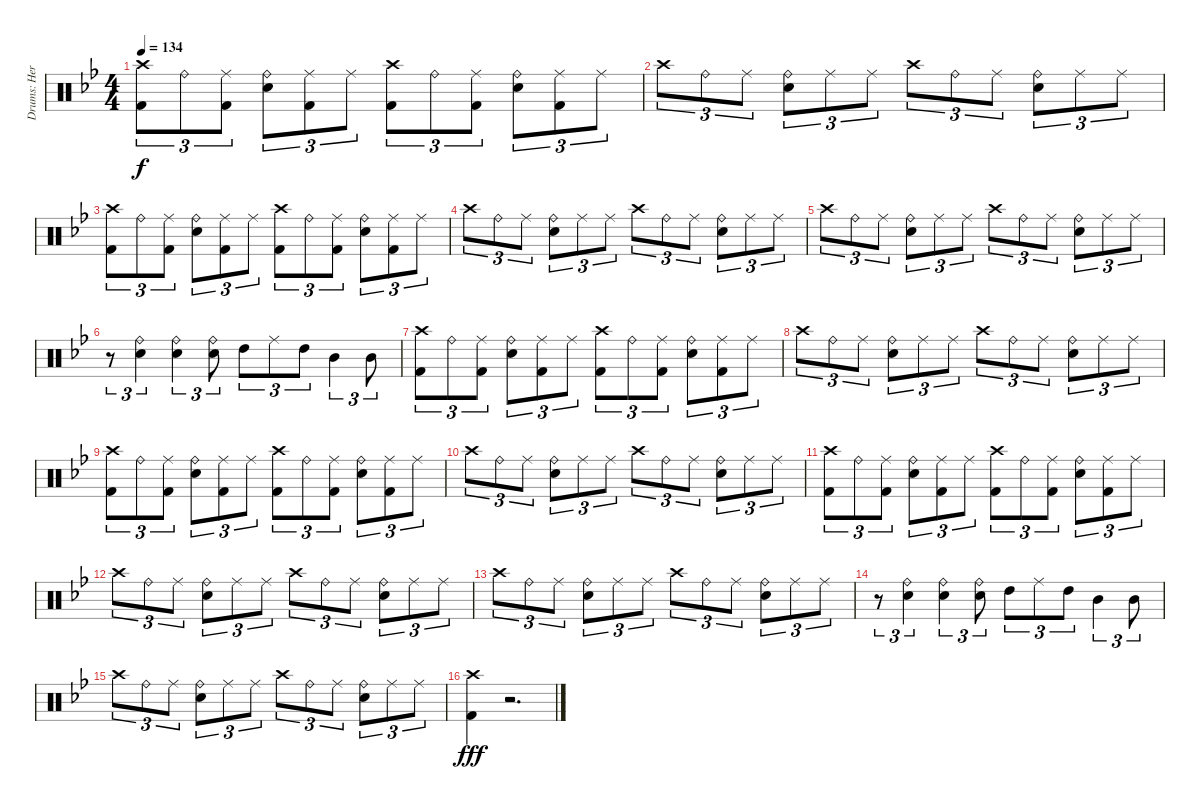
\track ("Drums: Herman" "Drums: Her") {instrument percussion}
\staff {score}
\articulation defaults
\ts (4 4)
\tempo 134
\clef neutral
\ks bb
("Crash high (hit)" "Kick (hit) 2").8{tu (3 2) dy f} "Ride (bell)".8{tu (3 2)} ("Ride (middle)" "Kick (hit) 2").8{tu (3 2)} ("Ride (bell)" "Snare (hit) 2").8{tu (3 2)} ("Ride (middle)" "Kick (hit) 2").8{tu (3 2)} "Ride (middle)".8{tu (3 2)} ("Crash high (hit)" "Kick (hit) 2").8{tu (3 2)} "Ride (bell)".8{tu (3 2)} ("Ride (middle)" "Kick (hit) 2").8{tu (3 2)} ("Ride (bell)" "Snare (hit) 2").8{tu (3 2)} ("Ride (middle)" "Kick (hit) 2").8{tu (3 2)} "Ride (middle)".8{tu (3 2)} |
"Crash high (hit)".8{tu (3 2)} "Ride (bell)".8{tu (3 2)} "Ride (middle)".8{tu (3 2)} ("Ride (bell)" "Snare (hit) 2").8{tu (3 2)} "Ride (middle)".8{tu (3 2)} "Ride (middle)".8{tu (3 2)} "Crash high (hit)".8{tu (3 2)} "Ride (bell)".8{tu (3 2)} "Ride (middle)".8{tu (3 2)} ("Ride (bell)" "Snare (hit) 2").8{tu (3 2)} "Ride (middle)".8{tu (3 2)} "Ride (middle)".8{tu (3 2)} |
("Crash high (hit)" "Kick (hit) 2").8{tu (3 2)} "Ride (bell)".8{tu (3 2)} ("Ride (middle)" "Kick (hit) 2").8{tu (3 2)} ("Ride (bell)" "Snare (hit) 2").8{tu (3 2)} ("Ride (middle)" "Kick (hit) 2").8{tu (3 2)} "Ride (middle)".8{tu (3 2)} ("Crash high (hit)" "Kick (hit) 2").8{tu (3 2)} "Ride (bell)".8{tu (3 2)} ("Ride (middle)" "Kick (hit) 2").8{tu (3 2)} ("Ride (bell)" "Snare (hit) 2").8{tu (3 2)} ("Ride (middle)" "Kick (hit) 2").8{tu (3 2)} "Ride (middle)".8{tu (3 2)} |
"Crash high (hit)".8{tu (3 2)} "Ride (bell)".8{tu (3 2)} "Ride (middle)".8{tu (3 2)} ("Ride (bell)" "Snare (hit) 2").8{tu (3 2)} "Ride (middle)".8{tu (3 2)} "Ride (middle)".8{tu (3 2)} "Crash high (hit)".8{tu (3 2)} "Ride (bell)".8{tu (3 2)} "Ride (middle)".8{tu (3 2)} ("Ride (bell)" "Snare (hit) 2").8{tu (3 2)} "Ride (middle)".8{tu (3 2)} "Ride (middle)".8{tu (3 2)} |
"Crash high (hit)".8{tu (3 2)} "Ride (bell)".8{tu (3 2)} "Ride (middle)".8{tu (3 2)} ("Ride (bell)" "Snare (hit) 2").8{tu (3 2)} "Ride (middle)".8{tu (3 2)} "Ride (middle)".8{tu (3 2)} "Crash high (hit)".8{tu (3 2)} "Ride (bell)".8{tu (3 2)} "Ride (middle)".8{tu (3 2)} ("Ride (bell)" "Snare (hit) 2").8{tu (3 2)} "Ride (middle)".8{tu (3 2)} "Ride (middle)".8{tu (3 2)} |
r.8{tu (3 2)} ("Ride (bell)" "Snare (hit) 2").4{tu (3 2)} ("Ride (bell)" "Snare (hit) 2").4{tu (3 2)} ("Ride (bell)" "Snare (hit) 2").8{tu (3 2)} "High Tom (hit)".8{tu (3 2)} "Ride (middle)".8{tu (3 2)} "High Tom (hit)".8{tu (3 2)} "Mid Tom (hit)".4{tu (3 2)} "Mid Tom (hit)".8{tu (3 2)} |
("Crash high (hit)" "Kick (hit) 2").8{tu (3 2)} "Ride (bell)".8{tu (3 2)} ("Ride (middle)" "Kick (hit) 2").8{tu (3 2)} ("Ride (bell)" "Snare (hit) 2").8{tu (3 2)} ("Ride (middle)" "Kick (hit) 2").8{tu (3 2)} "Ride (middle)".8{tu (3 2)} ("Crash high (hit)" "Kick (hit) 2").8{tu (3 2)} "Ride (bell)".8{tu (3 2)} ("Ride (middle)" "Kick (hit) 2").8{tu (3 2)} ("Ride (bell)" "Snare (hit) 2").8{tu (3 2)} ("Ride (middle)" "Kick (hit) 2").8{tu (3 2)} "Ride (middle)".8{tu (3 2)} |
"Crash high (hit)".8{tu (3 2)} "Ride (bell)".8{tu (3 2)} "Ride (middle)".8{tu (3 2)} ("Ride (bell)" "Snare (hit) 2").8{tu (3 2)} "Ride (middle)".8{tu (3 2)} "Ride (middle)".8{tu (3 2)} "Crash high (hit)".8{tu (3 2)} "Ride (bell)".8{tu (3 2)} "Ride (middle)".8{tu (3 2)} ("Ride (bell)" "Snare (hit) 2").8{tu (3 2)} "Ride (middle)".8{tu (3 2)} "Ride (middle)".8{tu (3 2)} |
("Crash high (hit)" "Kick (hit) 2").8{tu (3 2)} "Ride (bell)".8{tu (3 2)} ("Ride (middle)" "Kick (hit) 2").8{tu (3 2)} ("Ride (bell)" "Snare (hit) 2").8{tu (3 2)} ("Ride (middle)" "Kick (hit) 2").8{tu (3 2)} "Ride (middle)".8{tu (3 2)} ("Crash high (hit)" "Kick (hit) 2").8{tu (3 2)} "Ride (bell)".8{tu (3 2)} ("Ride (middle)" "Kick (hit) 2").8{tu (3 2)} ("Ride (bell)" "Snare (hit) 2").8{tu (3 2)} ("Ride (middle)" "Kick (hit) 2").8{tu (3 2)} "Ride (middle)".8{tu (3 2)} |
"Crash high (hit)".8{tu (3 2)} "Ride (bell)".8{tu (3 2)} "Ride (middle)".8{tu (3 2)} ("Ride (bell)" "Snare (hit) 2").8{tu (3 2)} "Ride (middle)".8{tu (3 2)} "Ride (middle)".8{tu (3 2)} "Crash high (hit)".8{tu (3 2)} "Ride (bell)".8{tu (3 2)} "Ride (middle)".8{tu (3 2)} ("Ride (bell)" "Snare (hit) 2").8{tu (3 2)} "Ride (middle)".8{tu (3 2)} "Ride (middle)".8{tu (3 2)} |
("Crash high (hit)" "Kick (hit) 2").8{tu (3 2)} "Ride (bell)".8{tu (3 2)} ("Ride (middle)" "Kick (hit) 2").8{tu (3 2)} ("Ride (bell)" "Snare (hit) 2").8{tu (3 2)} ("Ride (middle)" "Kick (hit) 2").8{tu (3 2)} "Ride (middle)".8{tu (3 2)} ("Crash high (hit)" "Kick (hit) 2").8{tu (3 2)} "Ride (bell)".8{tu (3 2)} ("Ride (middle)" "Kick (hit) 2").8{tu (3 2)} ("Ride (bell)" "Snare (hit) 2").8{tu (3 2)} ("Ride (middle)" "Kick (hit) 2").8{tu (3 2)} "Ride (middle)".8{tu (3 2)} |
"Crash high (hit)".8{tu (3 2)} "Ride (bell)".8{tu (3 2)} "Ride (middle)".8{tu (3 2)} ("Ride (bell)" "Snare (hit) 2").8{tu (3 2)} "Ride (middle)".8{tu (3 2)} "Ride (middle)".8{tu (3 2)} "Crash high (hit)".8{tu (3 2)} "Ride (bell)".8{tu (3 2)} "Ride (middle)".8{tu (3 2)} ("Ride (bell)" "Snare (hit) 2").8{tu (3 2)} "Ride (middle)".8{tu (3 2)} "Ride (middle)".8{tu (3 2)} |
"Crash high (hit)".8{tu (3 2)} "Ride (bell)".8{tu (3 2)} "Ride (middle)".8{tu (3 2)} ("Ride (bell)" "Snare (hit) 2").8{tu (3 2)} "Ride (middle)".8{tu (3 2)} "Ride (middle)".8{tu (3 2)} "Crash high (hit)".8{tu (3 2)} "Ride (bell)".8{tu (3 2)} "Ride (middle)".8{tu (3 2)} ("Ride (bell)" "Snare (hit) 2").8{tu (3 2)} "Ride (middle)".8{tu (3 2)} "Ride (middle)".8{tu (3 2)} |
r.8{tu (3 2)} ("Ride (bell)" "Snare (hit) 2").4{tu (3 2)} ("Ride (bell)" "Snare (hit) 2").4{tu (3 2)} ("Ride (bell)" "Snare (hit) 2").8{tu (3 2)} "High Tom (hit)".8{tu (3 2)} "Ride (middle)".8{tu (3 2)} "High Tom (hit)".8{tu (3 2)} "Mid Tom (hit)".4{tu (3 2)} "Mid Tom (hit)".8{tu (3 2)} |
"Crash high (hit)".8{tu (3 2)} "Ride (bell)".8{tu (3 2)} "Ride (middle)".8{tu (3 2)} ("Ride (bell)" "Snare (hit) 2").8{tu (3 2)} "Ride (middle)".8{tu (3 2)} "Ride (middle)".8{tu (3 2)} "Crash high (hit)".8{tu (3 2)} "Ride (bell)".8{tu (3 2)} "Ride (middle)".8{tu (3 2)} ("Ride (bell)" "Snare (hit) 2").8{tu (3 2)} "Ride (middle)".8{tu (3 2)} "Ride (middle)".8{tu (3 2)} |
("Crash high (hit)" "Kick (hit) 2").4{dy fff} r.2{d}
